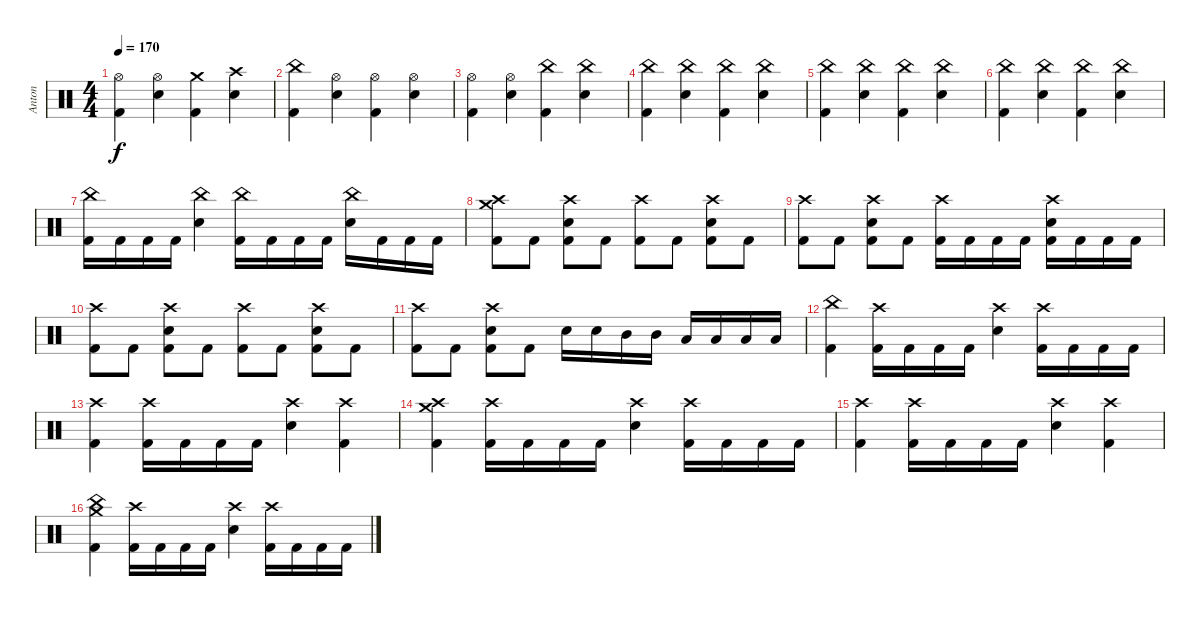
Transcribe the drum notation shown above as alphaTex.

\track ("Anton" "Anton") {instrument percussion}
\staff
\articulation defaults
\ts (4 4)
\tempo 170
\clef neutral
\ks c
("Hi-Hat (open)" "Kick (hit) 2").4{dy f} ("Hi-Hat (open)" "Electric Snare (hit)").4 ("Crash medium (hit)" "Kick (hit) 2").4 ("Crash high (hit)" "Electric Snare (hit)").4 |
("China (hit)" "Kick (hit) 2").4 ("Hi-Hat (open)" "Electric Snare (hit)").4 ("Hi-Hat (open)" "Kick (hit) 2").4 ("Hi-Hat (open)" "Electric Snare (hit)").4 |
("Hi-Hat (open)" "Kick (hit) 2").4 ("Hi-Hat (open)" "Electric Snare (hit)").4 ("China (hit)" "Kick (hit) 2").4 ("China (hit)" "Electric Snare (hit)").4 |
("China (hit)" "Kick (hit) 2").4 ("China (hit)" "Electric Snare (hit)").4 ("China (hit)" "Kick (hit) 2").4 ("China (hit)" "Electric Snare (hit)").4 |
("China (hit)" "Kick (hit) 2").4 ("China (hit)" "Electric Snare (hit)").4 ("China (hit)" "Kick (hit) 2").4 ("China (hit)" "Electric Snare (hit)").4 |
("China (hit)" "Kick (hit) 2").4 ("China (hit)" "Electric Snare (hit)").4 ("China (hit)" "Kick (hit) 2").4 ("China (hit)" "Electric Snare (hit)").4 |
("China (hit)" "Kick (hit) 2").16 "Kick (hit) 2".16 "Kick (hit) 2".16 "Kick (hit) 2".16 ("China (hit)" "Electric Snare (hit)").4 ("China (hit)" "Kick (hit) 2").16 "Kick (hit) 2".16 "Kick (hit) 2".16 "Kick (hit) 2".16 ("China (hit)" "Electric Snare (hit)").16 "Kick (hit) 2".16 "Kick (hit) 2".16 "Kick (hit) 2".16 |
("Crash high (hit)" "Crash medium (hit)" "Kick (hit) 2").8 "Kick (hit) 2".8 ("Crash high (hit)" "Electric Snare (hit)" "Kick (hit) 2").8 "Kick (hit) 2".8 ("Crash high (hit)" "Kick (hit) 2").8 "Kick (hit) 2".8 ("Crash high (hit)" "Electric Snare (hit)" "Kick (hit) 2").8 "Kick (hit) 2".8 |
("Crash high (hit)" "Kick (hit) 2").8 "Kick (hit) 2".8 ("Crash high (hit)" "Electric Snare (hit)" "Kick (hit) 2").8 "Kick (hit) 2".8 ("Crash high (hit)" "Kick (hit) 2").16 "Kick (hit) 2".16 "Kick (hit) 2".16 "Kick (hit) 2".16 ("Crash high (hit)" "Electric Snare (hit)" "Kick (hit) 2").16 "Kick (hit) 2".16 "Kick (hit) 2".16 "Kick (hit) 2".16 |
("Crash high (hit)" "Kick (hit) 2").8 "Kick (hit) 2".8 ("Crash high (hit)" "Electric Snare (hit)" "Kick (hit) 2").8 "Kick (hit) 2".8 ("Crash high (hit)" "Kick (hit) 2").8 "Kick (hit) 2".8 ("Crash high (hit)" "Electric Snare (hit)" "Kick (hit) 2").8 "Kick (hit) 2".8 |
("Crash high (hit)" "Kick (hit) 2").8 "Kick (hit) 2".8 ("Crash high (hit)" "Electric Snare (hit)" "Kick (hit) 2").8 "Kick (hit) 2".8 "Electric Snare (hit)".16 "Electric Snare (hit)".16 "Mid Tom (hit)".16 "Mid Tom (hit)".16 "Low Tom (hit)".16 "Low Tom (hit)".16 "Low Floor Tom (hit)".16 "Low Floor Tom (hit)".16 |
("China (hit)" "Kick (hit) 2").4 ("Crash high (hit)" "Kick (hit) 2").16 "Kick (hit) 2".16 "Kick (hit) 2".16 "Kick (hit) 2".16 ("Crash high (hit)" "Electric Snare (hit)").4 ("Crash high (hit)" "Kick (hit) 2").16 "Kick (hit) 2".16 "Kick (hit) 2".16 "Kick (hit) 2".16 |
("Crash high (hit)" "Kick (hit) 2").4 ("Crash high (hit)" "Kick (hit) 2").16 "Kick (hit) 2".16 "Kick (hit) 2".16 "Kick (hit) 2".16 ("Crash high (hit)" "Electric Snare (hit)").4 ("Crash high (hit)" "Kick (hit) 2").4 |
("Crash high (hit)" "Crash medium (hit)" "Kick (hit) 2").4 ("Crash high (hit)" "Kick (hit) 2").16 "Kick (hit) 2".16 "Kick (hit) 2".16 "Kick (hit) 2".16 ("Crash high (hit)" "Electric Snare (hit)").4 ("Crash high (hit)" "Kick (hit) 2").16 "Kick (hit) 2".16 "Kick (hit) 2".16 "Kick (hit) 2".16 |
("Crash high (hit)" "Kick (hit) 2").4 ("Crash high (hit)" "Kick (hit) 2").16 "Kick (hit) 2".16 "Kick (hit) 2".16 "Kick (hit) 2".16 ("Crash high (hit)" "Electric Snare (hit)").4 ("Crash high (hit)" "Kick (hit) 2").4 |
("China (hit)" "Crash medium (hit)" "Kick (hit) 2").4 ("Crash high (hit)" "Kick (hit) 2").16 "Kick (hit) 2".16 "Kick (hit) 2".16 "Kick (hit) 2".16 ("Crash high (hit)" "Electric Snare (hit)").4 ("Crash high (hit)" "Kick (hit) 2").16 "Kick (hit) 2".16 "Kick (hit) 2".16 "Kick (hit) 2".16
